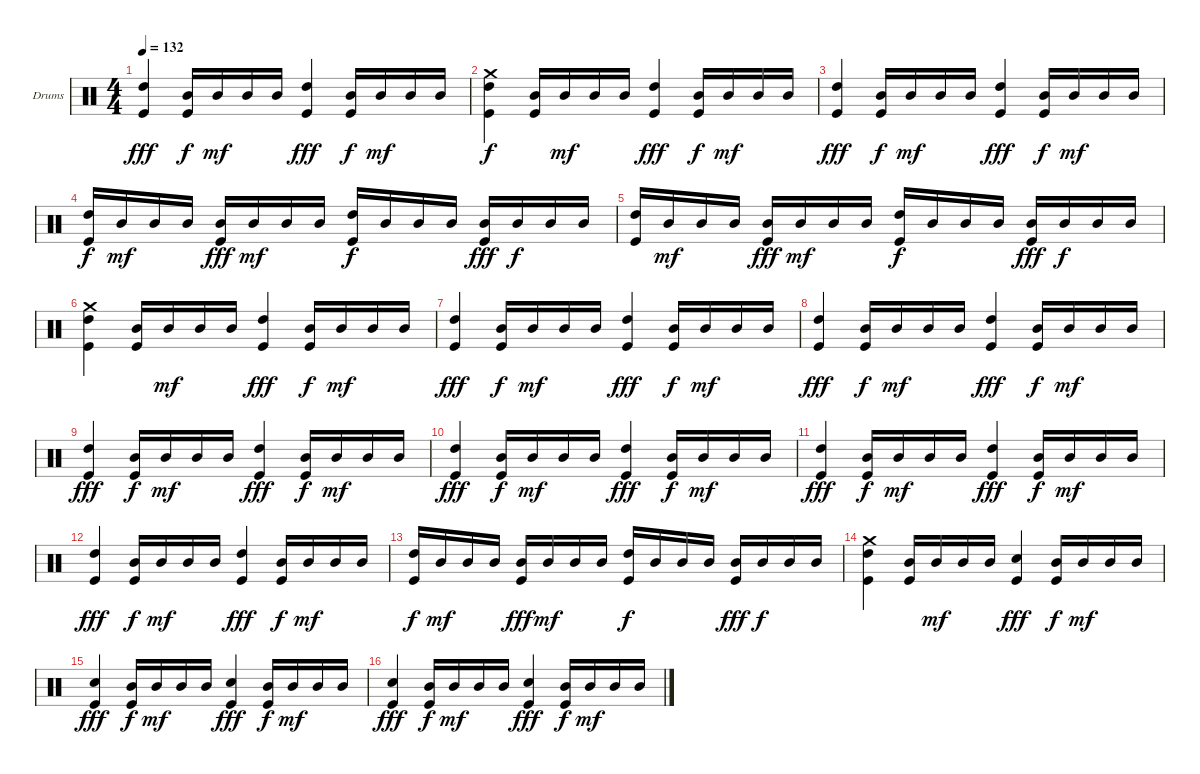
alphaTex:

\bracketExtendMode groupsimilarinstruments
\firstSystemTrackNameOrientation horizontal
\otherSystemsTrackNameOrientation horizontal
\track ("Larry" "Drums") {instrument percussion}
\staff {score}
\articulation defaults
\ts (4 4)
\tempo 132
\clef neutral
\ks c
("High Tom (hit)" "Kick (hit)").4{dy fff} ("Mid Tom (hit)" "Kick (hit)").16{dy f} "Mid Tom (hit)".16{dy mf} "Mid Tom (hit)".16 "Mid Tom (hit)".16 ("High Tom (hit)" "Kick (hit)").4{dy fff} ("Mid Tom (hit)" "Kick (hit)").16{dy f} "Mid Tom (hit)".16{dy mf} "Mid Tom (hit)".16 "Mid Tom (hit)".16 |
("Crash medium (hit)" "High Tom (hit)" "Kick (hit)").4{dy f} ("Mid Tom (hit)" "Kick (hit)").16 "Mid Tom (hit)".16{dy mf} "Mid Tom (hit)".16 "Mid Tom (hit)".16 ("High Tom (hit)" "Kick (hit)").4{dy fff} ("Mid Tom (hit)" "Kick (hit)").16{dy f} "Mid Tom (hit)".16{dy mf} "Mid Tom (hit)".16 "Mid Tom (hit)".16 |
("High Tom (hit)" "Kick (hit)").4{dy fff} ("Mid Tom (hit)" "Kick (hit)").16{dy f} "Mid Tom (hit)".16{dy mf} "Mid Tom (hit)".16 "Mid Tom (hit)".16 ("High Tom (hit)" "Kick (hit)").4{dy fff} ("Mid Tom (hit)" "Kick (hit)").16{dy f} "Mid Tom (hit)".16{dy mf} "Mid Tom (hit)".16 "Mid Tom (hit)".16 |
("High Tom (hit)" "Kick (hit)").16{dy f} "Mid Tom (hit)".16{dy mf} "Mid Tom (hit)".16 "Mid Tom (hit)".16 ("Mid Tom (hit)" "Kick (hit)").16{dy fff} "Mid Tom (hit)".16{dy mf} "Mid Tom (hit)".16 "Mid Tom (hit)".16 ("High Tom (hit)" "Kick (hit)").16{dy f} "Mid Tom (hit)".16 "Mid Tom (hit)".16 "Mid Tom (hit)".16 ("Mid Tom (hit)" "Kick (hit)").16{dy fff} "Mid Tom (hit)".16{dy f} "Mid Tom (hit)".16 "Mid Tom (hit)".16 |
("High Tom (hit)" "Kick (hit)").16 "Mid Tom (hit)".16{dy mf} "Mid Tom (hit)".16 "Mid Tom (hit)".16 ("Mid Tom (hit)" "Kick (hit)").16{dy fff} "Mid Tom (hit)".16{dy mf} "Mid Tom (hit)".16 "Mid Tom (hit)".16 ("High Tom (hit)" "Kick (hit)").16{dy f} "Mid Tom (hit)".16 "Mid Tom (hit)".16 "Mid Tom (hit)".16 ("Mid Tom (hit)" "Kick (hit)").16{dy fff} "Mid Tom (hit)".16{dy f} "Mid Tom (hit)".16 "Mid Tom (hit)".16 |
("Crash medium (hit)" "High Tom (hit)" "Kick (hit)").4 ("Mid Tom (hit)" "Kick (hit)").16 "Mid Tom (hit)".16{dy mf} "Mid Tom (hit)".16 "Mid Tom (hit)".16 ("High Tom (hit)" "Kick (hit)").4{dy fff} ("Mid Tom (hit)" "Kick (hit)").16{dy f} "Mid Tom (hit)".16{dy mf} "Mid Tom (hit)".16 "Mid Tom (hit)".16 |
("High Tom (hit)" "Kick (hit)").4{dy fff} ("Mid Tom (hit)" "Kick (hit)").16{dy f} "Mid Tom (hit)".16{dy mf} "Mid Tom (hit)".16 "Mid Tom (hit)".16 ("High Tom (hit)" "Kick (hit)").4{dy fff} ("Mid Tom (hit)" "Kick (hit)").16{dy f} "Mid Tom (hit)".16{dy mf} "Mid Tom (hit)".16 "Mid Tom (hit)".16 |
("High Tom (hit)" "Kick (hit)").4{dy fff} ("Mid Tom (hit)" "Kick (hit)").16{dy f} "Mid Tom (hit)".16{dy mf} "Mid Tom (hit)".16 "Mid Tom (hit)".16 ("High Tom (hit)" "Kick (hit)").4{dy fff} ("Mid Tom (hit)" "Kick (hit)").16{dy f} "Mid Tom (hit)".16{dy mf} "Mid Tom (hit)".16 "Mid Tom (hit)".16 |
("High Tom (hit)" "Kick (hit)").4{dy fff} ("Mid Tom (hit)" "Kick (hit)").16{dy f} "Mid Tom (hit)".16{dy mf} "Mid Tom (hit)".16 "Mid Tom (hit)".16 ("High Tom (hit)" "Kick (hit)").4{dy fff} ("Mid Tom (hit)" "Kick (hit)").16{dy f} "Mid Tom (hit)".16{dy mf} "Mid Tom (hit)".16 "Mid Tom (hit)".16 |
("High Tom (hit)" "Kick (hit)").4{dy fff} ("Mid Tom (hit)" "Kick (hit)").16{dy f} "Mid Tom (hit)".16{dy mf} "Mid Tom (hit)".16 "Mid Tom (hit)".16 ("High Tom (hit)" "Kick (hit)").4{dy fff} ("Mid Tom (hit)" "Kick (hit)").16{dy f} "Mid Tom (hit)".16{dy mf} "Mid Tom (hit)".16 "Mid Tom (hit)".16 |
("High Tom (hit)" "Kick (hit)").4{dy fff} ("Mid Tom (hit)" "Kick (hit)").16{dy f} "Mid Tom (hit)".16{dy mf} "Mid Tom (hit)".16 "Mid Tom (hit)".16 ("High Tom (hit)" "Kick (hit)").4{dy fff} ("Mid Tom (hit)" "Kick (hit)").16{dy f} "Mid Tom (hit)".16{dy mf} "Mid Tom (hit)".16 "Mid Tom (hit)".16 |
("High Tom (hit)" "Kick (hit)").4{dy fff} ("Mid Tom (hit)" "Kick (hit)").16{dy f} "Mid Tom (hit)".16{dy mf} "Mid Tom (hit)".16 "Mid Tom (hit)".16 ("High Tom (hit)" "Kick (hit)").4{dy fff} ("Mid Tom (hit)" "Kick (hit)").16{dy f} "Mid Tom (hit)".16{dy mf} "Mid Tom (hit)".16 "Mid Tom (hit)".16 |
("High Tom (hit)" "Kick (hit)").16{dy f} "Mid Tom (hit)".16{dy mf} "Mid Tom (hit)".16 "Mid Tom (hit)".16 ("Mid Tom (hit)" "Kick (hit)").16{dy fff} "Mid Tom (hit)".16{dy mf} "Mid Tom (hit)".16 "Mid Tom (hit)".16 ("High Tom (hit)" "Kick (hit)").16{dy f} "Mid Tom (hit)".16 "Mid Tom (hit)".16 "Mid Tom (hit)".16 ("Mid Tom (hit)" "Kick (hit)").16{dy fff} "Mid Tom (hit)".16{dy f} "Mid Tom (hit)".16 "Mid Tom (hit)".16 |
("Crash medium (hit)" "High Tom (hit)" "Kick (hit)").4 ("Mid Tom (hit)" "Kick (hit)").16 "Mid Tom (hit)".16{dy mf} "Mid Tom (hit)".16 "Mid Tom (hit)".16 ("Snare (hit) 2" "Kick (hit)").4{dy fff} ("Mid Tom (hit)" "Kick (hit)").16{dy f} "Mid Tom (hit)".16{dy mf} "Mid Tom (hit)".16 "Mid Tom (hit)".16 |
("Snare (hit) 2" "Kick (hit)").4{dy fff} ("Mid Tom (hit)" "Kick (hit)").16{dy f} "Mid Tom (hit)".16{dy mf} "Mid Tom (hit)".16 "Mid Tom (hit)".16 ("Snare (hit) 2" "Kick (hit)").4{dy fff} ("Mid Tom (hit)" "Kick (hit)").16{dy f} "Mid Tom (hit)".16{dy mf} "Mid Tom (hit)".16 "Mid Tom (hit)".16 |
("Snare (hit) 2" "Kick (hit)").4{dy fff} ("Mid Tom (hit)" "Kick (hit)").16{dy f} "Mid Tom (hit)".16{dy mf} "Mid Tom (hit)".16 "Mid Tom (hit)".16 ("Snare (hit) 2" "Kick (hit)").4{dy fff} ("Mid Tom (hit)" "Kick (hit)").16{dy f} "Mid Tom (hit)".16{dy mf} "Mid Tom (hit)".16 "Mid Tom (hit)".16
